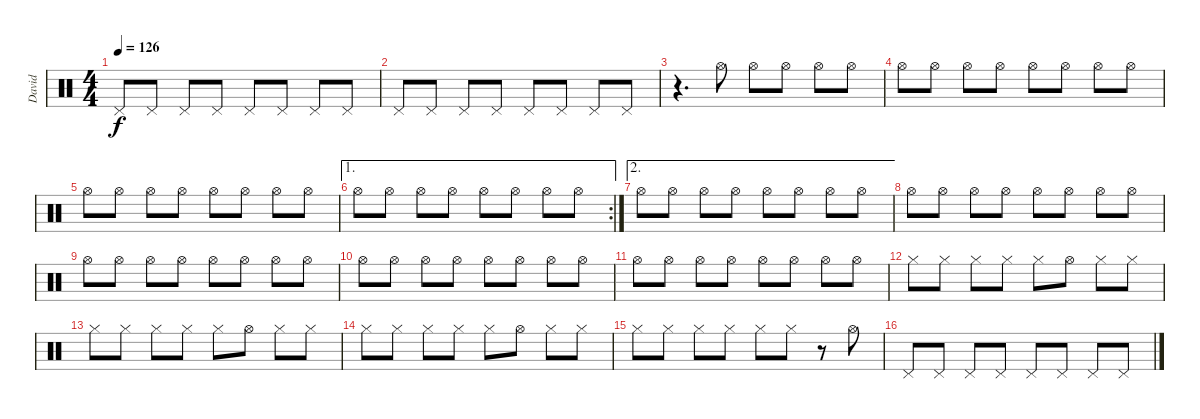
\track ("David" "David") {instrument percussion}
\staff {score}
\articulation defaults
\ts (4 4)
\tempo 126
\clef neutral
\ks c "Pedal Hi-Hat (hit)".8{dy f} "Pedal Hi-Hat (hit)".8 "Pedal Hi-Hat (hit)".8 "Pedal Hi-Hat (hit)".8 "Pedal Hi-Hat (hit)".8 "Pedal Hi-Hat (hit)".8 "Pedal Hi-Hat (hit)".8 "Pedal Hi-Hat (hit)".8
|
"Pedal Hi-Hat (hit)".8 "Pedal Hi-Hat (hit)".8 "Pedal Hi-Hat (hit)".8 "Pedal Hi-Hat (hit)".8 "Pedal Hi-Hat (hit)".8 "Pedal Hi-Hat (hit)".8 "Pedal Hi-Hat (hit)".8 "Pedal Hi-Hat (hit)".8 |
r.4{d} "Hi-Hat (open)".8 "Hi-Hat (open)".8 "Hi-Hat (open)".8 "Hi-Hat (open)".8 "Hi-Hat (open)".8 |
"Hi-Hat (open)".8 "Hi-Hat (open)".8 "Hi-Hat (open)".8 "Hi-Hat (open)".8 "Hi-Hat (open)".8 "Hi-Hat (open)".8 "Hi-Hat (open)".8 "Hi-Hat (open)".8 |
"Hi-Hat (open)".8 "Hi-Hat (open)".8 "Hi-Hat (open)".8 "Hi-Hat (open)".8 "Hi-Hat (open)".8 "Hi-Hat (open)".8 "Hi-Hat (open)".8 "Hi-Hat (open)".8 |
\ae 1
\rc 2 "Hi-Hat (open)".8 "Hi-Hat (open)".8 "Hi-Hat (open)".8 "Hi-Hat (open)".8 "Hi-Hat (open)".8 "Hi-Hat (open)".8 "Hi-Hat (open)".8 "Hi-Hat (open)".8
|
\ae 2 "Hi-Hat (open)".8 "Hi-Hat (open)".8 "Hi-Hat (open)".8 "Hi-Hat (open)".8 "Hi-Hat (open)".8 "Hi-Hat (open)".8 "Hi-Hat (open)".8 "Hi-Hat (open)".8
|
"Hi-Hat (open)".8 "Hi-Hat (open)".8 "Hi-Hat (open)".8 "Hi-Hat (open)".8 "Hi-Hat (open)".8 "Hi-Hat (open)".8 "Hi-Hat (open)".8 "Hi-Hat (open)".8 |
"Hi-Hat (open)".8 "Hi-Hat (open)".8 "Hi-Hat (open)".8 "Hi-Hat (open)".8 "Hi-Hat (open)".8 "Hi-Hat (open)".8 "Hi-Hat (open)".8 "Hi-Hat (open)".8 |
"Hi-Hat (open)".8 "Hi-Hat (open)".8 "Hi-Hat (open)".8 "Hi-Hat (open)".8 "Hi-Hat (open)".8 "Hi-Hat (open)".8 "Hi-Hat (open)".8 "Hi-Hat (open)".8 |
"Hi-Hat (open)".8 "Hi-Hat (open)".8 "Hi-Hat (open)".8 "Hi-Hat (open)".8 "Hi-Hat (open)".8 "Hi-Hat (open)".8 "Hi-Hat (open)".8 "Hi-Hat (open)".8 |
"Hi-Hat (closed)".8 "Hi-Hat (closed)".8 "Hi-Hat (closed)".8 "Hi-Hat (closed)".8 "Hi-Hat (closed)".8 "Hi-Hat (open)".8 "Hi-Hat (closed)".8 "Hi-Hat (closed)".8 |
"Hi-Hat (closed)".8 "Hi-Hat (closed)".8 "Hi-Hat (closed)".8 "Hi-Hat (closed)".8 "Hi-Hat (closed)".8 "Hi-Hat (open)".8 "Hi-Hat (closed)".8 "Hi-Hat (closed)".8 |
"Hi-Hat (closed)".8 "Hi-Hat (closed)".8 "Hi-Hat (closed)".8 "Hi-Hat (closed)".8 "Hi-Hat (closed)".8 "Hi-Hat (open)".8 "Hi-Hat (closed)".8 "Hi-Hat (closed)".8 |
"Hi-Hat (closed)".8 "Hi-Hat (closed)".8 "Hi-Hat (closed)".8 "Hi-Hat (closed)".8 "Hi-Hat (closed)".8 "Hi-Hat (closed)".8 r.8 "Hi-Hat (open)".8 |
"Pedal Hi-Hat (hit)".8 "Pedal Hi-Hat (hit)".8 "Pedal Hi-Hat (hit)".8 "Pedal Hi-Hat (hit)".8 "Pedal Hi-Hat (hit)".8 "Pedal Hi-Hat (hit)".8 "Pedal Hi-Hat (hit)".8 "Pedal Hi-Hat (hit)".8
